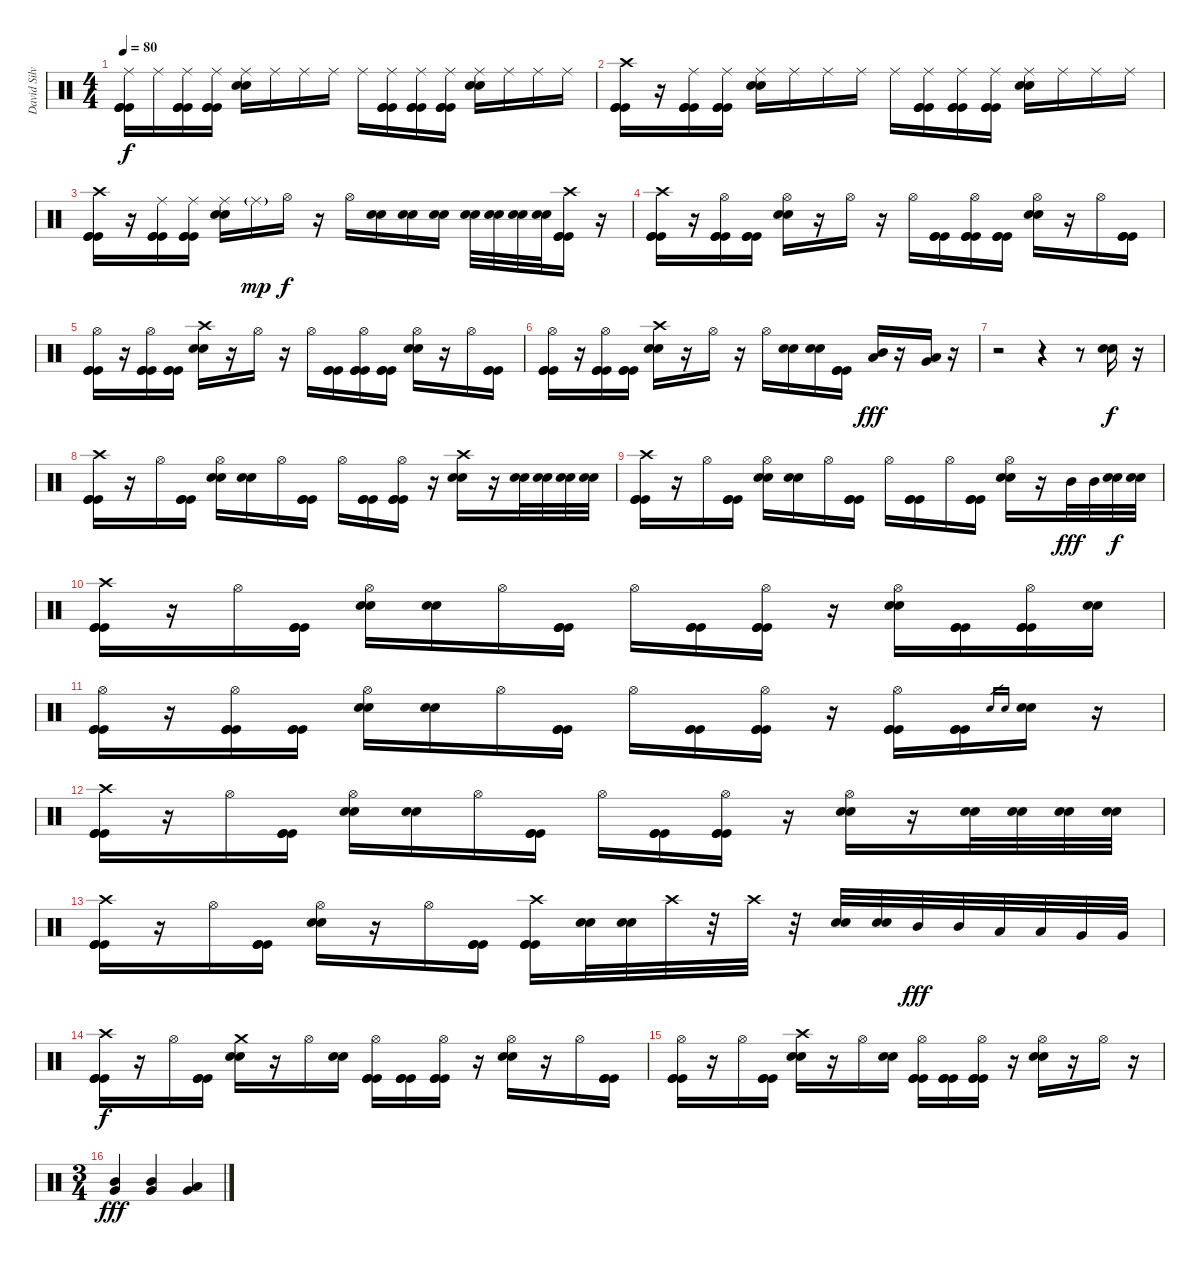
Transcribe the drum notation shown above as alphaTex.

\track ("David Silveria (Drums)" "David Silv") {instrument percussion}
\staff {score}
\articulation defaults
\ts (4 4)
\tempo 80
\clef neutral
\ks c
("Ride (middle)" "Kick (hit)" "Kick (hit)" "Kick (hit)").16{dy f} "Ride (middle)".16 ("Ride (middle)" "Kick (hit)" "Kick (hit)" "Kick (hit)").16 ("Ride (middle)" "Kick (hit)" "Kick (hit)" "Kick (hit)").16 ("Ride (middle)" "Snare (hit) 2" "Snare (hit) 2").16 "Ride (middle)".16 "Ride (middle)".16 "Ride (middle)".16 "Ride (middle)".16 ("Ride (middle)" "Kick (hit)" "Kick (hit)" "Kick (hit)").16 ("Ride (middle)" "Kick (hit)" "Kick (hit)" "Kick (hit)").16 ("Ride (middle)" "Kick (hit)" "Kick (hit)" "Kick (hit)").16 ("Ride (middle)" "Snare (hit) 2" "Snare (hit) 2").16 "Ride (middle)".16 "Ride (middle)".16 "Ride (middle)".16 |
("Crash high (hit)" "Kick (hit)" "Kick (hit)" "Kick (hit)").16 r.16 ("Ride (middle)" "Kick (hit)" "Kick (hit)" "Kick (hit)").16 ("Ride (middle)" "Kick (hit)" "Kick (hit)" "Kick (hit)").16 ("Ride (middle)" "Snare (hit) 2" "Snare (hit) 2").16 "Ride (middle)".16 "Ride (middle)".16 "Ride (middle)".16 "Ride (middle)".16 ("Ride (middle)" "Kick (hit)" "Kick (hit)" "Kick (hit)").16 ("Ride (middle)" "Kick (hit)" "Kick (hit)" "Kick (hit)").16 ("Ride (middle)" "Kick (hit)" "Kick (hit)" "Kick (hit)").16 ("Ride (middle)" "Snare (hit) 2" "Snare (hit) 2").16 "Ride (middle)".16 "Ride (middle)".16 "Ride (middle)".16 |
("Crash high (hit)" "Kick (hit)" "Kick (hit)" "Kick (hit)").16 r.16 ("Ride (middle)" "Kick (hit)" "Kick (hit)" "Kick (hit)").16 ("Ride (middle)" "Kick (hit)" "Kick (hit)" "Kick (hit)").16 ("Ride (middle)" "Snare (hit) 2" "Snare (hit) 2").16 "Ride (middle)"{g}.16{dy mp} "Hi-Hat (open)".16{dy f} r.16 "Hi-Hat (open)".16 ("Snare (hit) 2" "Snare (hit) 2").16 ("Snare (hit) 2" "Snare (hit) 2").16 ("Snare (hit) 2" "Snare (hit) 2").16 ("Snare (hit) 2" "Snare (hit) 2").32 ("Snare (hit) 2" "Snare (hit) 2").32 ("Snare (hit) 2" "Snare (hit) 2").32 ("Snare (hit) 2" "Snare (hit) 2").32 ("Crash high (hit)" "Kick (hit)" "Kick (hit)" "Kick (hit)").16 r.16 |
("Crash high (hit)" "Kick (hit)" "Kick (hit)" "Kick (hit)").16 r.16 ("Hi-Hat (open)" "Kick (hit)" "Kick (hit)" "Kick (hit)").16 ("Kick (hit)" "Kick (hit)" "Kick (hit)").16 ("Hi-Hat (open)" "Snare (hit) 2" "Snare (hit) 2").16 r.16 "Hi-Hat (open)".16 r.16 "Hi-Hat (open)".16 ("Kick (hit)" "Kick (hit)" "Kick (hit)").16 ("Hi-Hat (open)" "Kick (hit)" "Kick (hit)" "Kick (hit)").16 ("Kick (hit)" "Kick (hit)" "Kick (hit)").16 ("Hi-Hat (open)" "Snare (hit) 2" "Snare (hit) 2").16 r.16 "Hi-Hat (open)".16 ("Kick (hit)" "Kick (hit)" "Kick (hit)").16 |
("Hi-Hat (open)" "Kick (hit)" "Kick (hit)" "Kick (hit)").16 r.16 ("Hi-Hat (open)" "Kick (hit)" "Kick (hit)" "Kick (hit)").16 ("Kick (hit)" "Kick (hit)" "Kick (hit)").16 ("Crash high (hit)" "Snare (hit) 2" "Snare (hit) 2").16 r.16 "Hi-Hat (open)".16 r.16 "Hi-Hat (open)".16 ("Kick (hit)" "Kick (hit)" "Kick (hit)").16 ("Hi-Hat (open)" "Kick (hit)" "Kick (hit)" "Kick (hit)").16 ("Kick (hit)" "Kick (hit)" "Kick (hit)").16 ("Hi-Hat (open)" "Snare (hit) 2" "Snare (hit) 2").16 r.16 "Hi-Hat (open)".16 ("Kick (hit)" "Kick (hit)" "Kick (hit)").16 |
("Hi-Hat (open)" "Kick (hit)" "Kick (hit)" "Kick (hit)").16 r.16 ("Hi-Hat (open)" "Kick (hit)" "Kick (hit)" "Kick (hit)").16 ("Kick (hit)" "Kick (hit)" "Kick (hit)").16 ("Crash high (hit)" "Snare (hit) 2" "Snare (hit) 2").16 r.16 "Hi-Hat (open)".16 r.16 "Hi-Hat (open)".16 ("Snare (hit) 2" "Snare (hit) 2").16 ("Snare (hit) 2" "Snare (hit) 2").16 ("Kick (hit)" "Kick (hit)" "Kick (hit)").16 ("Mid Tom (hit)" "Low Tom (hit)").16{dy fff} r.16 ("Very Low Tom (hit)" "Low Tom (hit)").16 r.16 |
r.2 r.4 r.8 ("Snare (hit) 2" "Snare (hit) 2").16{dy f} r.16 |
("Crash high (hit)" "Kick (hit)" "Kick (hit)" "Kick (hit)").16 r.16 "Hi-Hat (open)".16 ("Kick (hit)" "Kick (hit)" "Kick (hit)").16 ("Hi-Hat (open)" "Snare (hit) 2" "Snare (hit) 2").16 ("Snare (hit) 2" "Snare (hit) 2").16 "Hi-Hat (open)".16 ("Kick (hit)" "Kick (hit)" "Kick (hit)").16 "Hi-Hat (open)".16 ("Kick (hit)" "Kick (hit)" "Kick (hit)").16 ("Hi-Hat (open)" "Kick (hit)" "Kick (hit)" "Kick (hit)").16 r.16 ("Crash high (hit)" "Snare (hit) 2" "Snare (hit) 2").16 r.16 ("Snare (hit) 2" "Snare (hit) 2").32 ("Snare (hit) 2" "Snare (hit) 2").32 ("Snare (hit) 2" "Snare (hit) 2").32 ("Snare (hit) 2" "Snare (hit) 2").32 |
("Crash high (hit)" "Kick (hit)" "Kick (hit)" "Kick (hit)").16 r.16 "Hi-Hat (open)".16 ("Kick (hit)" "Kick (hit)" "Kick (hit)").16 ("Hi-Hat (open)" "Snare (hit) 2" "Snare (hit) 2").16 ("Snare (hit) 2" "Snare (hit) 2").16 "Hi-Hat (open)".16 ("Kick (hit)" "Kick (hit)" "Kick (hit)").16 "Hi-Hat (open)".16 ("Kick (hit)" "Kick (hit)" "Kick (hit)").16 "Hi-Hat (open)".16 ("Kick (hit)" "Kick (hit)" "Kick (hit)").16 ("Hi-Hat (open)" "Snare (hit) 2" "Snare (hit) 2").16 r.16 "Mid Tom (hit)".32{dy fff} "Mid Tom (hit)".32 ("Snare (hit) 2" "Snare (hit) 2").32{dy f} ("Snare (hit) 2" "Snare (hit) 2").32 |
("Crash high (hit)" "Kick (hit)" "Kick (hit)" "Kick (hit)").16 r.16 "Hi-Hat (open)".16 ("Kick (hit)" "Kick (hit)" "Kick (hit)").16 ("Hi-Hat (open)" "Snare (hit) 2" "Snare (hit) 2").16 ("Snare (hit) 2" "Snare (hit) 2").16 "Hi-Hat (open)".16 ("Kick (hit)" "Kick (hit)" "Kick (hit)").16 "Hi-Hat (open)".16 ("Kick (hit)" "Kick (hit)" "Kick (hit)").16 ("Hi-Hat (open)" "Kick (hit)" "Kick (hit)" "Kick (hit)").16 r.16 ("Hi-Hat (open)" "Snare (hit) 2" "Snare (hit) 2").16 ("Kick (hit)" "Kick (hit)" "Kick (hit)").16 ("Hi-Hat (open)" "Kick (hit)" "Kick (hit)" "Kick (hit)").16 ("Snare (hit) 2" "Snare (hit) 2").16 |
("Hi-Hat (open)" "Kick (hit)" "Kick (hit)" "Kick (hit)").16 r.16 ("Hi-Hat (open)" "Kick (hit)" "Kick (hit)" "Kick (hit)").16 ("Kick (hit)" "Kick (hit)" "Kick (hit)").16 ("Hi-Hat (open)" "Snare (hit) 2" "Snare (hit) 2").16 ("Snare (hit) 2" "Snare (hit) 2").16 "Hi-Hat (open)".16 ("Kick (hit)" "Kick (hit)" "Kick (hit)").16 "Hi-Hat (open)".16 ("Kick (hit)" "Kick (hit)" "Kick (hit)").16 ("Hi-Hat (open)" "Kick (hit)" "Kick (hit)" "Kick (hit)").16 r.16 ("Hi-Hat (open)" "Kick (hit)" "Kick (hit)" "Kick (hit)").16 ("Kick (hit)" "Kick (hit)" "Kick (hit)").16 "Snare (hit) 2".16{gr} "Snare (hit) 2".16{gr} ("Snare (hit) 2" "Snare (hit) 2").16 r.16 |
("Crash high (hit)" "Kick (hit)" "Kick (hit)" "Kick (hit)").16 r.16 "Hi-Hat (open)".16 ("Kick (hit)" "Kick (hit)" "Kick (hit)").16 ("Hi-Hat (open)" "Snare (hit) 2" "Snare (hit) 2").16 ("Snare (hit) 2" "Snare (hit) 2").16 "Hi-Hat (open)".16 ("Kick (hit)" "Kick (hit)" "Kick (hit)").16 "Hi-Hat (open)".16 ("Kick (hit)" "Kick (hit)" "Kick (hit)").16 ("Hi-Hat (open)" "Kick (hit)" "Kick (hit)" "Kick (hit)").16 r.16 ("Hi-Hat (open)" "Snare (hit) 2" "Snare (hit) 2").16 r.16 ("Snare (hit) 2" "Snare (hit) 2").32 ("Snare (hit) 2" "Snare (hit) 2").32 ("Snare (hit) 2" "Snare (hit) 2").32 ("Snare (hit) 2" "Snare (hit) 2").32 |
("Crash high (hit)" "Kick (hit)" "Kick (hit)" "Kick (hit)").16 r.16 "Hi-Hat (open)".16 ("Kick (hit)" "Kick (hit)" "Kick (hit)").16 ("Hi-Hat (open)" "Snare (hit) 2" "Snare (hit) 2").16 r.16 "Hi-Hat (open)".16 ("Kick (hit)" "Kick (hit)" "Kick (hit)").16 ("Crash high (hit)" "Kick (hit)" "Kick (hit)" "Kick (hit)").16 ("Snare (hit) 2" "Snare (hit) 2").32 ("Snare (hit) 2" "Snare (hit) 2").32 "Crash high (hit)".32 r.32 "Crash high (hit)".32 r.32 ("Snare (hit) 2" "Snare (hit) 2").32 ("Snare (hit) 2" "Snare (hit) 2").32 "Mid Tom (hit)".32{dy fff} "Mid Tom (hit)".32 "Low Tom (hit)".32 "Low Tom (hit)".32 "Very Low Tom (hit)".32 "Very Low Tom (hit)".32 |
("Crash high (hit)" "Kick (hit)" "Kick (hit)" "Kick (hit)").16{dy f} r.16 "Hi-Hat (open)".16 ("Kick (hit)" "Kick (hit)" "Kick (hit)").16 ("Crash medium (hit)" "Snare (hit) 2" "Snare (hit) 2").16 r.16 "Hi-Hat (open)".16 ("Snare (hit) 2" "Snare (hit) 2").16 ("Hi-Hat (open)" "Kick (hit)" "Kick (hit)" "Kick (hit)").16 ("Kick (hit)" "Kick (hit)" "Kick (hit)").16 ("Hi-Hat (open)" "Kick (hit)" "Kick (hit)" "Kick (hit)").16 r.16 ("Hi-Hat (open)" "Snare (hit) 2" "Snare (hit) 2").16 r.16 "Hi-Hat (open)".16 ("Kick (hit)" "Kick (hit)" "Kick (hit)").16 |
("Hi-Hat (open)" "Kick (hit)" "Kick (hit)" "Kick (hit)").16 r.16 "Hi-Hat (open)".16 ("Kick (hit)" "Kick (hit)" "Kick (hit)").16 ("Crash high (hit)" "Snare (hit) 2" "Snare (hit) 2").16 r.16 "Hi-Hat (open)".16 ("Snare (hit) 2" "Snare (hit) 2").16 ("Hi-Hat (open)" "Kick (hit)" "Kick (hit)" "Kick (hit)").16 ("Kick (hit)" "Kick (hit)" "Kick (hit)").16 ("Hi-Hat (open)" "Kick (hit)" "Kick (hit)" "Kick (hit)").16 r.16 ("Hi-Hat (open)" "Snare (hit) 2" "Snare (hit) 2").16 r.16 "Hi-Hat (open)".16 r.16 |
\ts (3 4)
("Mid Tom (hit)" "Very Low Tom (hit)").4{dy fff} ("Mid Tom (hit)" "Very Low Tom (hit)").4 ("Low Tom (hit)" "Very Low Tom (hit)").4
